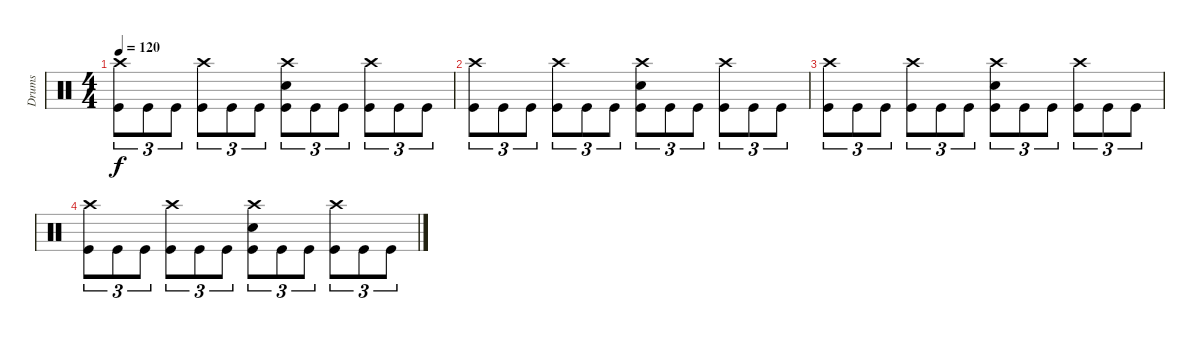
\track ("Drums" "Drums") {instrument percussion}
\staff
\articulation defaults
\ts (4 4)
\tempo 120
\clef neutral
\ks c
("Crash high (hit)" "Kick (hit)").8{tu (3 2) dy f} "Kick (hit)".8{tu (3 2)} "Kick (hit)".8{tu (3 2)} ("Crash high (hit)" "Kick (hit)").8{tu (3 2)} "Kick (hit)".8{tu (3 2)} "Kick (hit)".8{tu (3 2)} ("Crash high (hit)" "Electric Snare (hit)" "Kick (hit)").8{tu (3 2)} "Kick (hit)".8{tu (3 2)} "Kick (hit)".8{tu (3 2)} ("Crash high (hit)" "Kick (hit)").8{tu (3 2)} "Kick (hit)".8{tu (3 2)} "Kick (hit)".8{tu (3 2)} |
("Crash high (hit)" "Kick (hit)").8{tu (3 2)} "Kick (hit)".8{tu (3 2)} "Kick (hit)".8{tu (3 2)} ("Crash high (hit)" "Kick (hit)").8{tu (3 2)} "Kick (hit)".8{tu (3 2)} "Kick (hit)".8{tu (3 2)} ("Crash high (hit)" "Electric Snare (hit)" "Kick (hit)").8{tu (3 2)} "Kick (hit)".8{tu (3 2)} "Kick (hit)".8{tu (3 2)} ("Crash high (hit)" "Kick (hit)").8{tu (3 2)} "Kick (hit)".8{tu (3 2)} "Kick (hit)".8{tu (3 2)} |
("Crash high (hit)" "Kick (hit)").8{tu (3 2)} "Kick (hit)".8{tu (3 2)} "Kick (hit)".8{tu (3 2)} ("Crash high (hit)" "Kick (hit)").8{tu (3 2)} "Kick (hit)".8{tu (3 2)} "Kick (hit)".8{tu (3 2)} ("Crash high (hit)" "Electric Snare (hit)" "Kick (hit)").8{tu (3 2)} "Kick (hit)".8{tu (3 2)} "Kick (hit)".8{tu (3 2)} ("Crash high (hit)" "Kick (hit)").8{tu (3 2)} "Kick (hit)".8{tu (3 2)} "Kick (hit)".8{tu (3 2)} |
("Crash high (hit)" "Kick (hit)").8{tu (3 2)} "Kick (hit)".8{tu (3 2)} "Kick (hit)".8{tu (3 2)} ("Crash high (hit)" "Kick (hit)").8{tu (3 2)} "Kick (hit)".8{tu (3 2)} "Kick (hit)".8{tu (3 2)} ("Crash high (hit)" "Electric Snare (hit)" "Kick (hit)").8{tu (3 2)} "Kick (hit)".8{tu (3 2)} "Kick (hit)".8{tu (3 2)} ("Crash high (hit)" "Kick (hit)").8{tu (3 2)} "Kick (hit)".8{tu (3 2)} "Kick (hit)".8{tu (3 2)}
